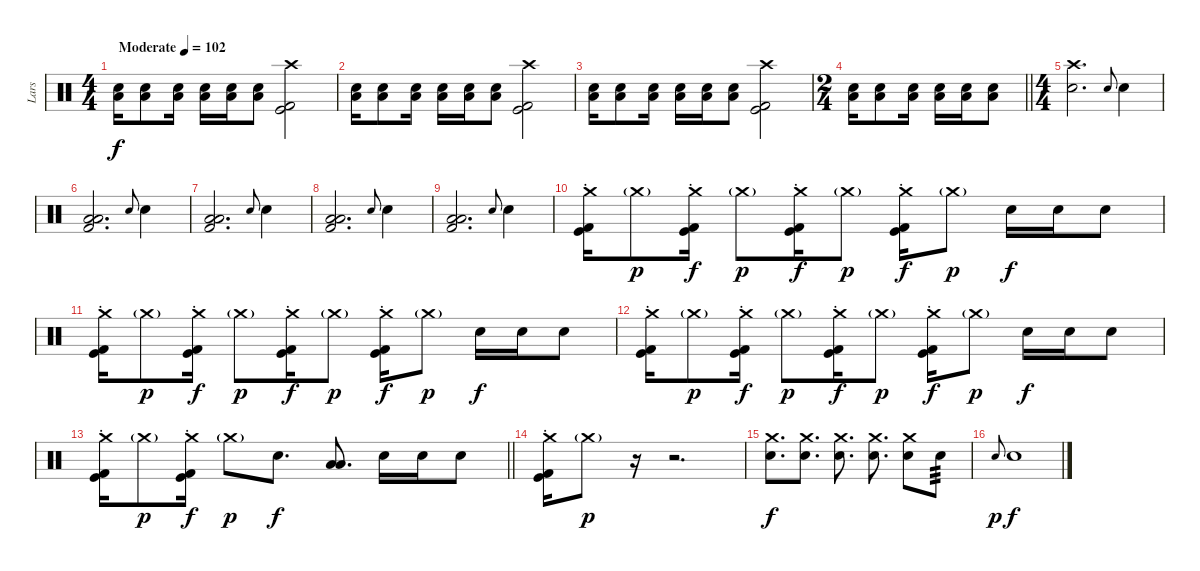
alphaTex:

\track ("Lars" "Lars") {instrument percussion}
\staff {score}
\articulation defaults
\ts (4 4)
\tempo (102 "Moderate")
\clef neutral
\ks c
("Electric Snare (hit)" "Low Floor Tom (hit)").16{dy f} ("Electric Snare (hit)" "Low Floor Tom (hit)").8 ("Electric Snare (hit)" "Low Floor Tom (hit)").16 ("Electric Snare (hit)" "Low Floor Tom (hit)").16 ("Electric Snare (hit)" "Low Floor Tom (hit)").16 ("Electric Snare (hit)" "Low Floor Tom (hit)").8 ("Crash high (hit)" "Kick (hit)" "Kick (hit) 2").2 |
("Electric Snare (hit)" "Low Floor Tom (hit)").16 ("Electric Snare (hit)" "Low Floor Tom (hit)").8 ("Electric Snare (hit)" "Low Floor Tom (hit)").16 ("Electric Snare (hit)" "Low Floor Tom (hit)").16 ("Electric Snare (hit)" "Low Floor Tom (hit)").16 ("Electric Snare (hit)" "Low Floor Tom (hit)").8 ("Crash high (hit)" "Kick (hit)" "Kick (hit) 2").2 |
("Electric Snare (hit)" "Low Floor Tom (hit)").16 ("Electric Snare (hit)" "Low Floor Tom (hit)").8 ("Electric Snare (hit)" "Low Floor Tom (hit)").16 ("Electric Snare (hit)" "Low Floor Tom (hit)").16 ("Electric Snare (hit)" "Low Floor Tom (hit)").16 ("Electric Snare (hit)" "Low Floor Tom (hit)").8 ("Crash high (hit)" "Kick (hit)" "Kick (hit) 2").2 |
\ts (2 4)
\barLineRight lightlight
("Electric Snare (hit)" "Low Floor Tom (hit)").16 ("Electric Snare (hit)" "Low Floor Tom (hit)").8 ("Electric Snare (hit)" "Low Floor Tom (hit)").16 ("Electric Snare (hit)" "Low Floor Tom (hit)").16 ("Electric Snare (hit)" "Low Floor Tom (hit)").16 ("Electric Snare (hit)" "Low Floor Tom (hit)").8 |
\ts (4 4)
\section ("" "")
("Crash high (hit)" "Electric Snare (hit)").2{d} "Electric Snare (hit)".8{gr onbeat} "Electric Snare (hit)".4 |
("Low Tom (hit)" "Low Floor Tom (hit)" "Kick (hit) 2").2{d} "Electric Snare (hit)".8{gr onbeat} "Electric Snare (hit)".4 |
("Low Tom (hit)" "Low Floor Tom (hit)" "Kick (hit) 2").2{d} "Electric Snare (hit)".8{gr onbeat} "Electric Snare (hit)".4 |
("Low Tom (hit)" "Low Floor Tom (hit)" "Kick (hit) 2").2{d} "Electric Snare (hit)".8{gr onbeat} "Electric Snare (hit)".4 |
("Low Tom (hit)" "Low Floor Tom (hit)" "Kick (hit) 2").2{d} "Electric Snare (hit)".8{gr onbeat} "Electric Snare (hit)".4 |
("Crash medium (hit)"{st} "Kick (hit)" "Kick (hit) 2").16 "Crash medium (hit)"{g}.8{dy p} ("Crash medium (hit)"{st} "Kick (hit)" "Kick (hit) 2").16{dy f} "Crash medium (hit)"{g}.8{dy p} ("Crash medium (hit)"{st} "Kick (hit)" "Kick (hit) 2").16{dy f} "Crash medium (hit)"{g}.8{dy p} ("Crash medium (hit)"{st} "Kick (hit)" "Kick (hit) 2").16{dy f} "Crash medium (hit)"{g}.8{dy p} "Electric Snare (hit)".16{dy f} "Electric Snare (hit)".16 "Electric Snare (hit)".8 |
("Crash medium (hit)"{st} "Kick (hit)" "Kick (hit) 2").16 "Crash medium (hit)"{g}.8{dy p} ("Crash medium (hit)"{st} "Kick (hit)" "Kick (hit) 2").16{dy f} "Crash medium (hit)"{g}.8{dy p} ("Crash medium (hit)"{st} "Kick (hit)" "Kick (hit) 2").16{dy f} "Crash medium (hit)"{g}.8{dy p} ("Crash medium (hit)"{st} "Kick (hit)" "Kick (hit) 2").16{dy f} "Crash medium (hit)"{g}.8{dy p} "Electric Snare (hit)".16{dy f} "Electric Snare (hit)".16 "Electric Snare (hit)".8 |
("Crash medium (hit)"{st} "Kick (hit)" "Kick (hit) 2").16 "Crash medium (hit)"{g}.8{dy p} ("Crash medium (hit)"{st} "Kick (hit)" "Kick (hit) 2").16{dy f} "Crash medium (hit)"{g}.8{dy p} ("Crash medium (hit)"{st} "Kick (hit)" "Kick (hit) 2").16{dy f} "Crash medium (hit)"{g}.8{dy p} ("Crash medium (hit)"{st} "Kick (hit)" "Kick (hit) 2").16{dy f} "Crash medium (hit)"{g}.8{dy p} "Electric Snare (hit)".16{dy f} "Electric Snare (hit)".16 "Electric Snare (hit)".8 |
\barLineRight lightlight
("Crash medium (hit)"{st} "Kick (hit)" "Kick (hit) 2").16 "Crash medium (hit)"{g}.8{dy p} ("Crash medium (hit)"{st} "Kick (hit)" "Kick (hit) 2").16{dy f} "Crash medium (hit)"{g}.8{dy p} "Electric Snare (hit)".8{d dy f} ("Low Tom (hit)" "Low Floor Tom (hit)").8{d} "Electric Snare (hit)".16 "Electric Snare (hit)".16 "Electric Snare (hit)".8 |
\section ("" "")
("Crash medium (hit)"{st} "Kick (hit)" "Kick (hit) 2").16 "Crash medium (hit)"{g}.8{dy p} r.16 r.2{d} |
("Crash medium (hit)" "Electric Snare (hit)").8{d dy f} ("Crash medium (hit)" "Electric Snare (hit)").8{d} ("Crash medium (hit)" "Electric Snare (hit)").8{d} ("Crash medium (hit)" "Electric Snare (hit)").8{d} ("Crash medium (hit)" "Electric Snare (hit)").8 "Electric Snare (hit)".8{tp 3} |
"Electric Snare (hit)".8{gr onbeat dy p} "Electric Snare (hit)".1{dy f}
